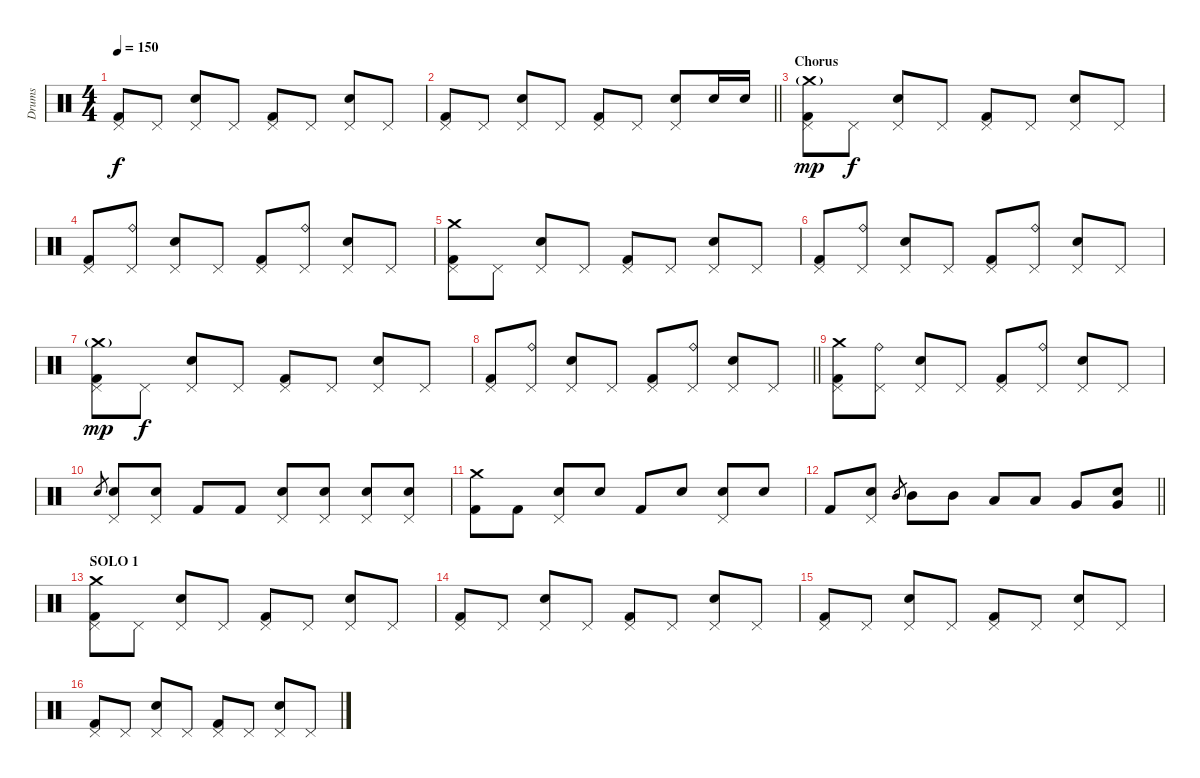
\track ("Drums" "Drums") {instrument percussion}
\staff {score}
\articulation defaults
\ts (4 4)
\tempo 150
\clef neutral
\ks c
("Pedal Hi-Hat (hit)" "Kick (hit) 2").8{dy f} "Pedal Hi-Hat (hit)".8 ("Pedal Hi-Hat (hit)" "Electric Snare (hit)").8 "Pedal Hi-Hat (hit)".8 ("Pedal Hi-Hat (hit)" "Kick (hit) 2").8 "Pedal Hi-Hat (hit)".8 ("Pedal Hi-Hat (hit)" "Electric Snare (hit)").8 "Pedal Hi-Hat (hit)".8 |
\barLineRight lightlight
("Pedal Hi-Hat (hit)" "Kick (hit) 2").8 "Pedal Hi-Hat (hit)".8 ("Pedal Hi-Hat (hit)" "Electric Snare (hit)").8 "Pedal Hi-Hat (hit)".8 ("Pedal Hi-Hat (hit)" "Kick (hit) 2").8 "Pedal Hi-Hat (hit)".8 ("Pedal Hi-Hat (hit)" "Electric Snare (hit)").8 "Electric Snare (hit)".16 "Electric Snare (hit)".16 |
\section ("" "Chorus")
("Crash medium (hit)"{g} "Pedal Hi-Hat (hit)" "Kick (hit) 2").8{dy mp} "Pedal Hi-Hat (hit)".8{dy f} ("Pedal Hi-Hat (hit)" "Electric Snare (hit)").8 "Pedal Hi-Hat (hit)".8 ("Pedal Hi-Hat (hit)" "Kick (hit) 2").8 "Pedal Hi-Hat (hit)".8 ("Pedal Hi-Hat (hit)" "Electric Snare (hit)").8 "Pedal Hi-Hat (hit)".8 |
("Pedal Hi-Hat (hit)" "Kick (hit) 2").8 ("Ride (bell)" "Pedal Hi-Hat (hit)").8 ("Pedal Hi-Hat (hit)" "Electric Snare (hit)").8 "Pedal Hi-Hat (hit)".8 ("Pedal Hi-Hat (hit)" "Kick (hit) 2").8 ("Ride (bell)" "Pedal Hi-Hat (hit)").8 ("Pedal Hi-Hat (hit)" "Electric Snare (hit)").8 "Pedal Hi-Hat (hit)".8 |
("Crash medium (hit)" "Pedal Hi-Hat (hit)" "Kick (hit) 2").8 "Pedal Hi-Hat (hit)".8 ("Pedal Hi-Hat (hit)" "Electric Snare (hit)").8 "Pedal Hi-Hat (hit)".8 ("Pedal Hi-Hat (hit)" "Kick (hit) 2").8 "Pedal Hi-Hat (hit)".8 ("Pedal Hi-Hat (hit)" "Electric Snare (hit)").8 "Pedal Hi-Hat (hit)".8 |
("Pedal Hi-Hat (hit)" "Kick (hit) 2").8 ("Ride (bell)" "Pedal Hi-Hat (hit)").8 ("Pedal Hi-Hat (hit)" "Electric Snare (hit)").8 "Pedal Hi-Hat (hit)".8 ("Pedal Hi-Hat (hit)" "Kick (hit) 2").8 ("Ride (bell)" "Pedal Hi-Hat (hit)").8 ("Pedal Hi-Hat (hit)" "Electric Snare (hit)").8 "Pedal Hi-Hat (hit)".8 |
("Crash medium (hit)"{g} "Pedal Hi-Hat (hit)" "Kick (hit) 2").8{dy mp} "Pedal Hi-Hat (hit)".8{dy f} ("Pedal Hi-Hat (hit)" "Electric Snare (hit)").8 "Pedal Hi-Hat (hit)".8 ("Pedal Hi-Hat (hit)" "Kick (hit) 2").8 "Pedal Hi-Hat (hit)".8 ("Pedal Hi-Hat (hit)" "Electric Snare (hit)").8 "Pedal Hi-Hat (hit)".8 |
\barLineRight lightlight
("Pedal Hi-Hat (hit)" "Kick (hit) 2").8 ("Ride (bell)" "Pedal Hi-Hat (hit)").8 ("Pedal Hi-Hat (hit)" "Electric Snare (hit)").8 "Pedal Hi-Hat (hit)".8 ("Pedal Hi-Hat (hit)" "Kick (hit) 2").8 ("Ride (bell)" "Pedal Hi-Hat (hit)").8 ("Pedal Hi-Hat (hit)" "Electric Snare (hit)").8 "Pedal Hi-Hat (hit)".8 |
("Crash medium (hit)" "Pedal Hi-Hat (hit)" "Kick (hit) 2").8 ("Ride (bell)" "Pedal Hi-Hat (hit)").8 ("Pedal Hi-Hat (hit)" "Electric Snare (hit)").8 "Pedal Hi-Hat (hit)".8 ("Pedal Hi-Hat (hit)" "Kick (hit) 2").8 ("Ride (bell)" "Pedal Hi-Hat (hit)").8 ("Pedal Hi-Hat (hit)" "Electric Snare (hit)").8 "Pedal Hi-Hat (hit)".8 |
"Electric Snare (hit)".8{gr} ("Pedal Hi-Hat (hit)" "Electric Snare (hit)").8 ("Pedal Hi-Hat (hit)" "Electric Snare (hit)").8 "Kick (hit) 2".8 "Kick (hit) 2".8 ("Pedal Hi-Hat (hit)" "Electric Snare (hit)").8 ("Pedal Hi-Hat (hit)" "Electric Snare (hit)").8 ("Pedal Hi-Hat (hit)" "Electric Snare (hit)").8 ("Pedal Hi-Hat (hit)" "Electric Snare (hit)").8 |
("Crash medium (hit)" "Kick (hit) 2").8 "Kick (hit) 2".8 ("Pedal Hi-Hat (hit)" "Electric Snare (hit)").8 "Snare (hit)".8 "Kick (hit) 2".8 "Snare (hit)".8 ("Pedal Hi-Hat (hit)" "Electric Snare (hit)").8 "Snare (hit)".8 |
\barLineRight lightlight "Kick (hit) 2".8
("Pedal Hi-Hat (hit)" "Electric Snare (hit)").8 "Mid Tom (hit)".8{gr} "Mid Tom (hit)".8 "Mid Tom (hit)".8 "Low Tom (hit)".8 "Low Tom (hit)".8 "Very Low Tom (hit)".8 ("Very Low Tom (hit)" "Electric Snare (hit)").8 |
\section ("" "SOLO 1")
("Crash medium (hit)" "Pedal Hi-Hat (hit)" "Kick (hit) 2").8 "Pedal Hi-Hat (hit)".8 ("Pedal Hi-Hat (hit)" "Electric Snare (hit)").8 "Pedal Hi-Hat (hit)".8 ("Pedal Hi-Hat (hit)" "Kick (hit) 2").8 "Pedal Hi-Hat (hit)".8 ("Pedal Hi-Hat (hit)" "Electric Snare (hit)").8 "Pedal Hi-Hat (hit)".8 |
("Pedal Hi-Hat (hit)" "Kick (hit) 2").8 "Pedal Hi-Hat (hit)".8 ("Pedal Hi-Hat (hit)" "Electric Snare (hit)").8 "Pedal Hi-Hat (hit)".8 ("Pedal Hi-Hat (hit)" "Kick (hit) 2").8 "Pedal Hi-Hat (hit)".8 ("Pedal Hi-Hat (hit)" "Electric Snare (hit)").8 "Pedal Hi-Hat (hit)".8 |
("Pedal Hi-Hat (hit)" "Kick (hit) 2").8 "Pedal Hi-Hat (hit)".8 ("Pedal Hi-Hat (hit)" "Electric Snare (hit)").8 "Pedal Hi-Hat (hit)".8 ("Pedal Hi-Hat (hit)" "Kick (hit) 2").8 "Pedal Hi-Hat (hit)".8 ("Pedal Hi-Hat (hit)" "Electric Snare (hit)").8 "Pedal Hi-Hat (hit)".8 |
("Pedal Hi-Hat (hit)" "Kick (hit) 2").8 "Pedal Hi-Hat (hit)".8 ("Pedal Hi-Hat (hit)" "Electric Snare (hit)").8 "Pedal Hi-Hat (hit)".8 ("Pedal Hi-Hat (hit)" "Kick (hit) 2").8 "Pedal Hi-Hat (hit)".8 ("Pedal Hi-Hat (hit)" "Electric Snare (hit)").8 "Pedal Hi-Hat (hit)".8
